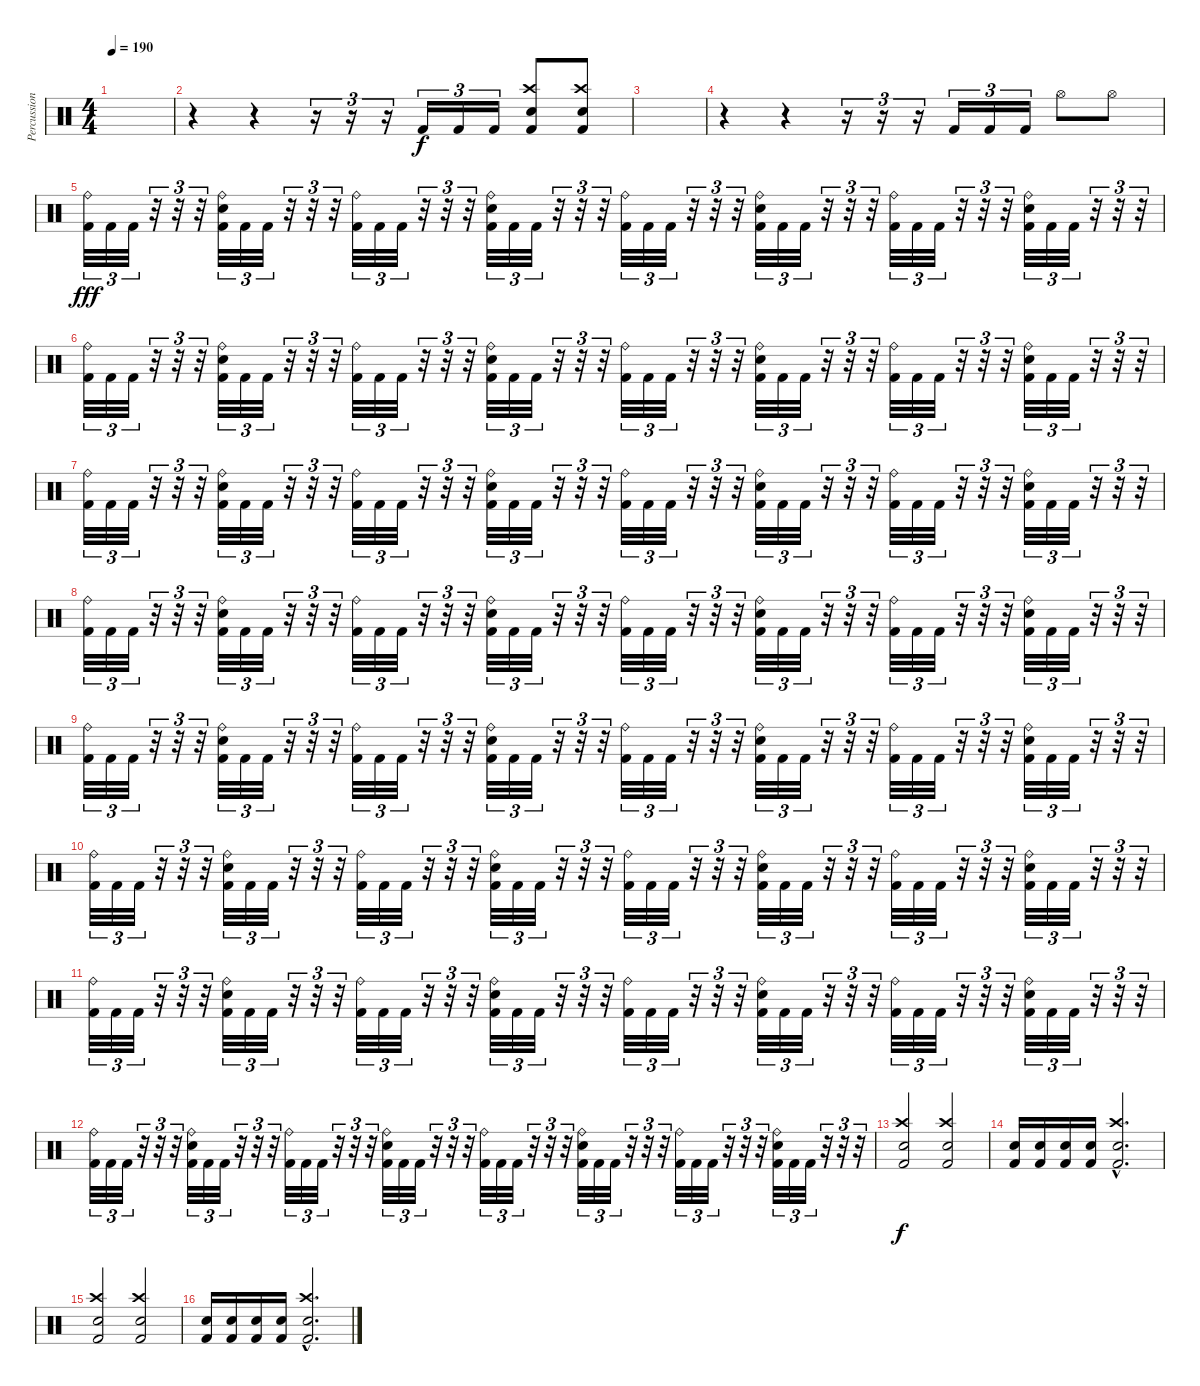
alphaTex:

\track ("Percussion" "Percussion") {instrument percussion}
\staff {score}
\articulation defaults
\ts (4 4)
\tempo 190
\clef neutral
\ks c
|
r.4 r.4 r.16{tu (3 2)} r.16{tu (3 2)} r.16{tu (3 2)} "Kick (hit) 2".16{tu (3 2)} "Kick (hit) 2".16{tu (3 2)} "Kick (hit) 2".16{tu (3 2)} ("Crash high (hit)" "Kick (hit) 2" "Snare (hit) 2").8 ("Crash high (hit)" "Kick (hit) 2" "Snare (hit) 2").8 |
|
r.4 r.4 r.16{tu (3 2)} r.16{tu (3 2)} r.16{tu (3 2)} "Kick (hit) 2".16{tu (3 2)} "Kick (hit) 2".16{tu (3 2)} "Kick (hit) 2".16{tu (3 2)} "Hi-Hat (open)".8 "Hi-Hat (open)".8 |
("Ride (bell)" "Kick (hit) 2").32{tu (3 2) dy fff} "Kick (hit) 2".32{tu (3 2)} "Kick (hit) 2".32{tu (3 2)} r.32{tu (3 2)} r.32{tu (3 2)} r.32{tu (3 2)} ("Ride (bell)" "Snare (hit) 2" "Kick (hit) 2").32{tu (3 2)} "Kick (hit) 2".32{tu (3 2)} "Kick (hit) 2".32{tu (3 2)} r.32{tu (3 2)} r.32{tu (3 2)} r.32{tu (3 2)} ("Ride (bell)" "Kick (hit) 2").32{tu (3 2)} "Kick (hit) 2".32{tu (3 2)} "Kick (hit) 2".32{tu (3 2)} r.32{tu (3 2)} r.32{tu (3 2)} r.32{tu (3 2)} ("Ride (bell)" "Snare (hit) 2" "Kick (hit) 2").32{tu (3 2)} "Kick (hit) 2".32{tu (3 2)} "Kick (hit) 2".32{tu (3 2)} r.32{tu (3 2)} r.32{tu (3 2)} r.32{tu (3 2)} ("Ride (bell)" "Kick (hit) 2").32{tu (3 2)} "Kick (hit) 2".32{tu (3 2)} "Kick (hit) 2".32{tu (3 2)} r.32{tu (3 2)} r.32{tu (3 2)} r.32{tu (3 2)} ("Ride (bell)" "Snare (hit) 2" "Kick (hit) 2").32{tu (3 2)} "Kick (hit) 2".32{tu (3 2)} "Kick (hit) 2".32{tu (3 2)} r.32{tu (3 2)} r.32{tu (3 2)} r.32{tu (3 2)} ("Ride (bell)" "Kick (hit) 2").32{tu (3 2)} "Kick (hit) 2".32{tu (3 2)} "Kick (hit) 2".32{tu (3 2)} r.32{tu (3 2)} r.32{tu (3 2)} r.32{tu (3 2)} ("Ride (bell)" "Snare (hit) 2" "Kick (hit) 2").32{tu (3 2)} "Kick (hit) 2".32{tu (3 2)} "Kick (hit) 2".32{tu (3 2)} r.32{tu (3 2)} r.32{tu (3 2)} r.32{tu (3 2)} |
("Ride (bell)" "Kick (hit) 2").32{tu (3 2)} "Kick (hit) 2".32{tu (3 2)} "Kick (hit) 2".32{tu (3 2)} r.32{tu (3 2)} r.32{tu (3 2)} r.32{tu (3 2)} ("Ride (bell)" "Snare (hit) 2" "Kick (hit) 2").32{tu (3 2)} "Kick (hit) 2".32{tu (3 2)} "Kick (hit) 2".32{tu (3 2)} r.32{tu (3 2)} r.32{tu (3 2)} r.32{tu (3 2)} ("Ride (bell)" "Kick (hit) 2").32{tu (3 2)} "Kick (hit) 2".32{tu (3 2)} "Kick (hit) 2".32{tu (3 2)} r.32{tu (3 2)} r.32{tu (3 2)} r.32{tu (3 2)} ("Ride (bell)" "Snare (hit) 2" "Kick (hit) 2").32{tu (3 2)} "Kick (hit) 2".32{tu (3 2)} "Kick (hit) 2".32{tu (3 2)} r.32{tu (3 2)} r.32{tu (3 2)} r.32{tu (3 2)} ("Ride (bell)" "Kick (hit) 2").32{tu (3 2)} "Kick (hit) 2".32{tu (3 2)} "Kick (hit) 2".32{tu (3 2)} r.32{tu (3 2)} r.32{tu (3 2)} r.32{tu (3 2)} ("Ride (bell)" "Snare (hit) 2" "Kick (hit) 2").32{tu (3 2)} "Kick (hit) 2".32{tu (3 2)} "Kick (hit) 2".32{tu (3 2)} r.32{tu (3 2)} r.32{tu (3 2)} r.32{tu (3 2)} ("Ride (bell)" "Kick (hit) 2").32{tu (3 2)} "Kick (hit) 2".32{tu (3 2)} "Kick (hit) 2".32{tu (3 2)} r.32{tu (3 2)} r.32{tu (3 2)} r.32{tu (3 2)} ("Ride (bell)" "Snare (hit) 2" "Kick (hit) 2").32{tu (3 2)} "Kick (hit) 2".32{tu (3 2)} "Kick (hit) 2".32{tu (3 2)} r.32{tu (3 2)} r.32{tu (3 2)} r.32{tu (3 2)} |
("Ride (bell)" "Kick (hit) 2").32{tu (3 2)} "Kick (hit) 2".32{tu (3 2)} "Kick (hit) 2".32{tu (3 2)} r.32{tu (3 2)} r.32{tu (3 2)} r.32{tu (3 2)} ("Ride (bell)" "Snare (hit) 2" "Kick (hit) 2").32{tu (3 2)} "Kick (hit) 2".32{tu (3 2)} "Kick (hit) 2".32{tu (3 2)} r.32{tu (3 2)} r.32{tu (3 2)} r.32{tu (3 2)} ("Ride (bell)" "Kick (hit) 2").32{tu (3 2)} "Kick (hit) 2".32{tu (3 2)} "Kick (hit) 2".32{tu (3 2)} r.32{tu (3 2)} r.32{tu (3 2)} r.32{tu (3 2)} ("Ride (bell)" "Snare (hit) 2" "Kick (hit) 2").32{tu (3 2)} "Kick (hit) 2".32{tu (3 2)} "Kick (hit) 2".32{tu (3 2)} r.32{tu (3 2)} r.32{tu (3 2)} r.32{tu (3 2)} ("Ride (bell)" "Kick (hit) 2").32{tu (3 2)} "Kick (hit) 2".32{tu (3 2)} "Kick (hit) 2".32{tu (3 2)} r.32{tu (3 2)} r.32{tu (3 2)} r.32{tu (3 2)} ("Ride (bell)" "Snare (hit) 2" "Kick (hit) 2").32{tu (3 2)} "Kick (hit) 2".32{tu (3 2)} "Kick (hit) 2".32{tu (3 2)} r.32{tu (3 2)} r.32{tu (3 2)} r.32{tu (3 2)} ("Ride (bell)" "Kick (hit) 2").32{tu (3 2)} "Kick (hit) 2".32{tu (3 2)} "Kick (hit) 2".32{tu (3 2)} r.32{tu (3 2)} r.32{tu (3 2)} r.32{tu (3 2)} ("Ride (bell)" "Snare (hit) 2" "Kick (hit) 2").32{tu (3 2)} "Kick (hit) 2".32{tu (3 2)} "Kick (hit) 2".32{tu (3 2)} r.32{tu (3 2)} r.32{tu (3 2)} r.32{tu (3 2)} |
("Ride (bell)" "Kick (hit) 2").32{tu (3 2)} "Kick (hit) 2".32{tu (3 2)} "Kick (hit) 2".32{tu (3 2)} r.32{tu (3 2)} r.32{tu (3 2)} r.32{tu (3 2)} ("Ride (bell)" "Snare (hit) 2" "Kick (hit) 2").32{tu (3 2)} "Kick (hit) 2".32{tu (3 2)} "Kick (hit) 2".32{tu (3 2)} r.32{tu (3 2)} r.32{tu (3 2)} r.32{tu (3 2)} ("Ride (bell)" "Kick (hit) 2").32{tu (3 2)} "Kick (hit) 2".32{tu (3 2)} "Kick (hit) 2".32{tu (3 2)} r.32{tu (3 2)} r.32{tu (3 2)} r.32{tu (3 2)} ("Ride (bell)" "Snare (hit) 2" "Kick (hit) 2").32{tu (3 2)} "Kick (hit) 2".32{tu (3 2)} "Kick (hit) 2".32{tu (3 2)} r.32{tu (3 2)} r.32{tu (3 2)} r.32{tu (3 2)} ("Ride (bell)" "Kick (hit) 2").32{tu (3 2)} "Kick (hit) 2".32{tu (3 2)} "Kick (hit) 2".32{tu (3 2)} r.32{tu (3 2)} r.32{tu (3 2)} r.32{tu (3 2)} ("Ride (bell)" "Snare (hit) 2" "Kick (hit) 2").32{tu (3 2)} "Kick (hit) 2".32{tu (3 2)} "Kick (hit) 2".32{tu (3 2)} r.32{tu (3 2)} r.32{tu (3 2)} r.32{tu (3 2)} ("Ride (bell)" "Kick (hit) 2").32{tu (3 2)} "Kick (hit) 2".32{tu (3 2)} "Kick (hit) 2".32{tu (3 2)} r.32{tu (3 2)} r.32{tu (3 2)} r.32{tu (3 2)} ("Ride (bell)" "Snare (hit) 2" "Kick (hit) 2").32{tu (3 2)} "Kick (hit) 2".32{tu (3 2)} "Kick (hit) 2".32{tu (3 2)} r.32{tu (3 2)} r.32{tu (3 2)} r.32{tu (3 2)} |
("Ride (bell)" "Kick (hit) 2").32{tu (3 2)} "Kick (hit) 2".32{tu (3 2)} "Kick (hit) 2".32{tu (3 2)} r.32{tu (3 2)} r.32{tu (3 2)} r.32{tu (3 2)} ("Ride (bell)" "Snare (hit) 2" "Kick (hit) 2").32{tu (3 2)} "Kick (hit) 2".32{tu (3 2)} "Kick (hit) 2".32{tu (3 2)} r.32{tu (3 2)} r.32{tu (3 2)} r.32{tu (3 2)} ("Ride (bell)" "Kick (hit) 2").32{tu (3 2)} "Kick (hit) 2".32{tu (3 2)} "Kick (hit) 2".32{tu (3 2)} r.32{tu (3 2)} r.32{tu (3 2)} r.32{tu (3 2)} ("Ride (bell)" "Snare (hit) 2" "Kick (hit) 2").32{tu (3 2)} "Kick (hit) 2".32{tu (3 2)} "Kick (hit) 2".32{tu (3 2)} r.32{tu (3 2)} r.32{tu (3 2)} r.32{tu (3 2)} ("Ride (bell)" "Kick (hit) 2").32{tu (3 2)} "Kick (hit) 2".32{tu (3 2)} "Kick (hit) 2".32{tu (3 2)} r.32{tu (3 2)} r.32{tu (3 2)} r.32{tu (3 2)} ("Ride (bell)" "Snare (hit) 2" "Kick (hit) 2").32{tu (3 2)} "Kick (hit) 2".32{tu (3 2)} "Kick (hit) 2".32{tu (3 2)} r.32{tu (3 2)} r.32{tu (3 2)} r.32{tu (3 2)} ("Ride (bell)" "Kick (hit) 2").32{tu (3 2)} "Kick (hit) 2".32{tu (3 2)} "Kick (hit) 2".32{tu (3 2)} r.32{tu (3 2)} r.32{tu (3 2)} r.32{tu (3 2)} ("Ride (bell)" "Snare (hit) 2" "Kick (hit) 2").32{tu (3 2)} "Kick (hit) 2".32{tu (3 2)} "Kick (hit) 2".32{tu (3 2)} r.32{tu (3 2)} r.32{tu (3 2)} r.32{tu (3 2)} |
("Ride (bell)" "Kick (hit) 2").32{tu (3 2)} "Kick (hit) 2".32{tu (3 2)} "Kick (hit) 2".32{tu (3 2)} r.32{tu (3 2)} r.32{tu (3 2)} r.32{tu (3 2)} ("Ride (bell)" "Snare (hit) 2" "Kick (hit) 2").32{tu (3 2)} "Kick (hit) 2".32{tu (3 2)} "Kick (hit) 2".32{tu (3 2)} r.32{tu (3 2)} r.32{tu (3 2)} r.32{tu (3 2)} ("Ride (bell)" "Kick (hit) 2").32{tu (3 2)} "Kick (hit) 2".32{tu (3 2)} "Kick (hit) 2".32{tu (3 2)} r.32{tu (3 2)} r.32{tu (3 2)} r.32{tu (3 2)} ("Ride (bell)" "Snare (hit) 2" "Kick (hit) 2").32{tu (3 2)} "Kick (hit) 2".32{tu (3 2)} "Kick (hit) 2".32{tu (3 2)} r.32{tu (3 2)} r.32{tu (3 2)} r.32{tu (3 2)} ("Ride (bell)" "Kick (hit) 2").32{tu (3 2)} "Kick (hit) 2".32{tu (3 2)} "Kick (hit) 2".32{tu (3 2)} r.32{tu (3 2)} r.32{tu (3 2)} r.32{tu (3 2)} ("Ride (bell)" "Snare (hit) 2" "Kick (hit) 2").32{tu (3 2)} "Kick (hit) 2".32{tu (3 2)} "Kick (hit) 2".32{tu (3 2)} r.32{tu (3 2)} r.32{tu (3 2)} r.32{tu (3 2)} ("Ride (bell)" "Kick (hit) 2").32{tu (3 2)} "Kick (hit) 2".32{tu (3 2)} "Kick (hit) 2".32{tu (3 2)} r.32{tu (3 2)} r.32{tu (3 2)} r.32{tu (3 2)} ("Ride (bell)" "Snare (hit) 2" "Kick (hit) 2").32{tu (3 2)} "Kick (hit) 2".32{tu (3 2)} "Kick (hit) 2".32{tu (3 2)} r.32{tu (3 2)} r.32{tu (3 2)} r.32{tu (3 2)} |
("Ride (bell)" "Kick (hit) 2").32{tu (3 2)} "Kick (hit) 2".32{tu (3 2)} "Kick (hit) 2".32{tu (3 2)} r.32{tu (3 2)} r.32{tu (3 2)} r.32{tu (3 2)} ("Ride (bell)" "Snare (hit) 2" "Kick (hit) 2").32{tu (3 2)} "Kick (hit) 2".32{tu (3 2)} "Kick (hit) 2".32{tu (3 2)} r.32{tu (3 2)} r.32{tu (3 2)} r.32{tu (3 2)} ("Ride (bell)" "Kick (hit) 2").32{tu (3 2)} "Kick (hit) 2".32{tu (3 2)} "Kick (hit) 2".32{tu (3 2)} r.32{tu (3 2)} r.32{tu (3 2)} r.32{tu (3 2)} ("Ride (bell)" "Snare (hit) 2" "Kick (hit) 2").32{tu (3 2)} "Kick (hit) 2".32{tu (3 2)} "Kick (hit) 2".32{tu (3 2)} r.32{tu (3 2)} r.32{tu (3 2)} r.32{tu (3 2)} ("Ride (bell)" "Kick (hit) 2").32{tu (3 2)} "Kick (hit) 2".32{tu (3 2)} "Kick (hit) 2".32{tu (3 2)} r.32{tu (3 2)} r.32{tu (3 2)} r.32{tu (3 2)} ("Ride (bell)" "Snare (hit) 2" "Kick (hit) 2").32{tu (3 2)} "Kick (hit) 2".32{tu (3 2)} "Kick (hit) 2".32{tu (3 2)} r.32{tu (3 2)} r.32{tu (3 2)} r.32{tu (3 2)} ("Ride (bell)" "Kick (hit) 2").32{tu (3 2)} "Kick (hit) 2".32{tu (3 2)} "Kick (hit) 2".32{tu (3 2)} r.32{tu (3 2)} r.32{tu (3 2)} r.32{tu (3 2)} ("Ride (bell)" "Snare (hit) 2" "Kick (hit) 2").32{tu (3 2)} "Kick (hit) 2".32{tu (3 2)} "Kick (hit) 2".32{tu (3 2)} r.32{tu (3 2)} r.32{tu (3 2)} r.32{tu (3 2)} |
("Ride (bell)" "Kick (hit) 2").32{tu (3 2)} "Kick (hit) 2".32{tu (3 2)} "Kick (hit) 2".32{tu (3 2)} r.32{tu (3 2)} r.32{tu (3 2)} r.32{tu (3 2)} ("Ride (bell)" "Snare (hit) 2" "Kick (hit) 2").32{tu (3 2)} "Kick (hit) 2".32{tu (3 2)} "Kick (hit) 2".32{tu (3 2)} r.32{tu (3 2)} r.32{tu (3 2)} r.32{tu (3 2)} ("Ride (bell)" "Kick (hit) 2").32{tu (3 2)} "Kick (hit) 2".32{tu (3 2)} "Kick (hit) 2".32{tu (3 2)} r.32{tu (3 2)} r.32{tu (3 2)} r.32{tu (3 2)} ("Ride (bell)" "Snare (hit) 2" "Kick (hit) 2").32{tu (3 2)} "Kick (hit) 2".32{tu (3 2)} "Kick (hit) 2".32{tu (3 2)} r.32{tu (3 2)} r.32{tu (3 2)} r.32{tu (3 2)} ("Ride (bell)" "Kick (hit) 2").32{tu (3 2)} "Kick (hit) 2".32{tu (3 2)} "Kick (hit) 2".32{tu (3 2)} r.32{tu (3 2)} r.32{tu (3 2)} r.32{tu (3 2)} ("Ride (bell)" "Snare (hit) 2" "Kick (hit) 2").32{tu (3 2)} "Kick (hit) 2".32{tu (3 2)} "Kick (hit) 2".32{tu (3 2)} r.32{tu (3 2)} r.32{tu (3 2)} r.32{tu (3 2)} ("Ride (bell)" "Kick (hit) 2").32{tu (3 2)} "Kick (hit) 2".32{tu (3 2)} "Kick (hit) 2".32{tu (3 2)} r.32{tu (3 2)} r.32{tu (3 2)} r.32{tu (3 2)} ("Ride (bell)" "Snare (hit) 2" "Kick (hit) 2").32{tu (3 2)} "Kick (hit) 2".32{tu (3 2)} "Kick (hit) 2".32{tu (3 2)} r.32{tu (3 2)} r.32{tu (3 2)} r.32{tu (3 2)} |
("Crash high (hit)" "Kick (hit) 2" "Snare (hit) 2").2{dy f} ("Crash high (hit)" "Kick (hit) 2" "Snare (hit) 2").2 |
("Snare (hit) 2" "Kick (hit) 2").16 ("Snare (hit) 2" "Kick (hit) 2").16 ("Snare (hit) 2" "Kick (hit) 2").16 ("Snare (hit) 2" "Kick (hit) 2").16 ("Crash high (hit)"{hac} "Snare (hit) 2"{hac} "Kick (hit) 2"{hac}).2{d} |
("Crash high (hit)" "Snare (hit) 2" "Kick (hit) 2").2 ("Crash high (hit)" "Snare (hit) 2" "Kick (hit) 2").2 |
("Snare (hit) 2" "Kick (hit) 2").16 ("Snare (hit) 2" "Kick (hit) 2").16 ("Snare (hit) 2" "Kick (hit) 2").16 ("Snare (hit) 2" "Kick (hit) 2").16 ("Crash high (hit)"{hac} "Snare (hit) 2"{hac} "Kick (hit) 2"{hac}).2{d}
